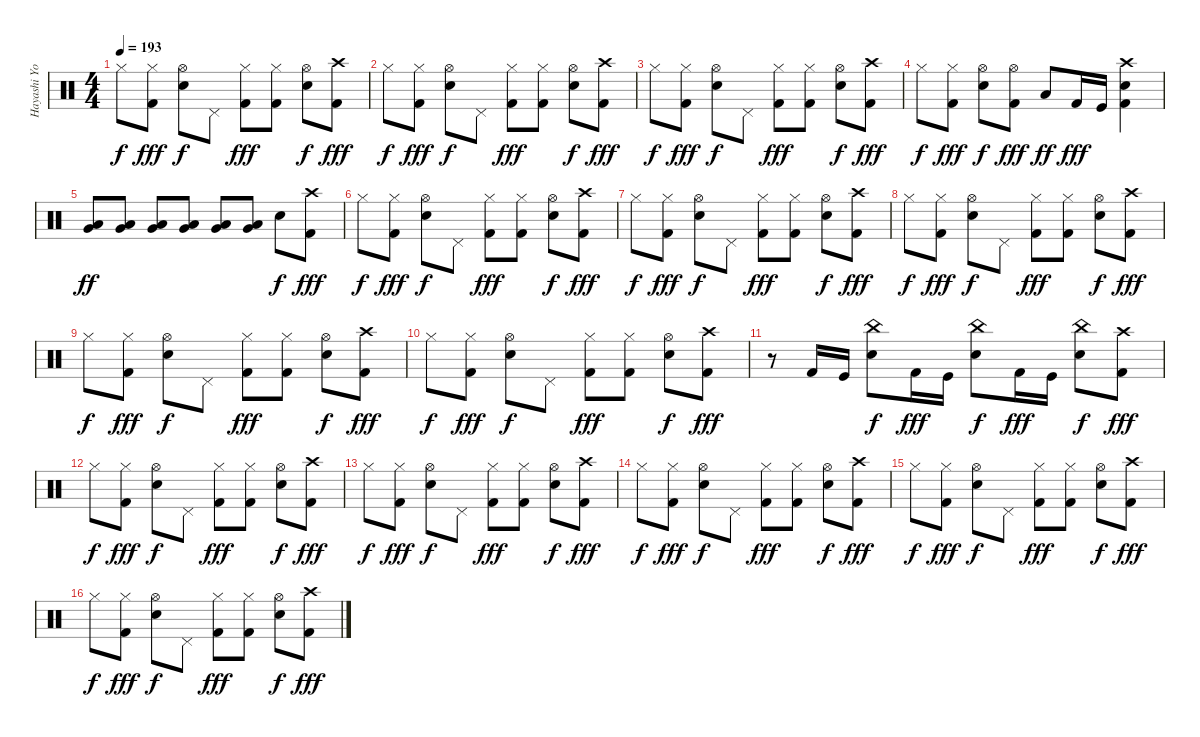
\track ("Hayashi Yoshiki(Yoshiki)" "Hayashi Yo") {instrument percussion}
\staff {score}
\articulation defaults
\ts (4 4)
\tempo 193
\clef neutral
\ks c "Hi-Hat (closed)".8{dy f}
("Hi-Hat (closed)" "Kick (hit) 2").8{dy fff} ("Hi-Hat (open)" "Electric Snare (hit)").8{dy f} "Pedal Hi-Hat (hit)".8 ("Hi-Hat (closed)" "Kick (hit) 2").8{dy fff} ("Hi-Hat (closed)" "Kick (hit) 2").8 ("Hi-Hat (open)" "Electric Snare (hit)").8{dy f} ("Crash high (hit)" "Kick (hit) 2").8{dy fff} |
"Hi-Hat (closed)".8{dy f} ("Hi-Hat (closed)" "Kick (hit) 2").8{dy fff} ("Hi-Hat (open)" "Electric Snare (hit)").8{dy f} "Pedal Hi-Hat (hit)".8 ("Hi-Hat (closed)" "Kick (hit) 2").8{dy fff} ("Hi-Hat (closed)" "Kick (hit) 2").8 ("Hi-Hat (open)" "Electric Snare (hit)").8{dy f} ("Crash high (hit)" "Kick (hit) 2").8{dy fff} |
"Hi-Hat (closed)".8{dy f} ("Hi-Hat (closed)" "Kick (hit) 2").8{dy fff} ("Hi-Hat (open)" "Electric Snare (hit)").8{dy f} "Pedal Hi-Hat (hit)".8 ("Hi-Hat (closed)" "Kick (hit) 2").8{dy fff} ("Hi-Hat (closed)" "Kick (hit) 2").8 ("Hi-Hat (open)" "Electric Snare (hit)").8{dy f} ("Crash high (hit)" "Kick (hit) 2").8{dy fff} |
"Hi-Hat (closed)".8{dy f} ("Hi-Hat (closed)" "Kick (hit) 2").8{dy fff} ("Hi-Hat (open)" "Electric Snare (hit)").8{dy f} ("Hi-Hat (open)" "Kick (hit) 2").8{dy fff} "Low Tom (hit)".8{dy ff} "Kick (hit) 2".16{dy fff} "Kick (hit)".16 ("Crash high (hit)" "Electric Snare (hit)" "Kick (hit) 2").4 |
("Very Low Tom (hit)" "Low Tom (hit)").8{dy ff} ("Very Low Tom (hit)" "Low Tom (hit)").8 ("Very Low Tom (hit)" "Low Tom (hit)").8 ("Very Low Tom (hit)" "Low Tom (hit)").8 ("Very Low Tom (hit)" "Low Tom (hit)").8 ("Very Low Tom (hit)" "Low Tom (hit)").8 "Electric Snare (hit)".8{dy f} ("Crash high (hit)" "Kick (hit) 2").8{dy fff} |
"Hi-Hat (closed)".8{dy f} ("Hi-Hat (closed)" "Kick (hit) 2").8{dy fff} ("Hi-Hat (open)" "Electric Snare (hit)").8{dy f} "Pedal Hi-Hat (hit)".8 ("Hi-Hat (closed)" "Kick (hit) 2").8{dy fff} ("Hi-Hat (closed)" "Kick (hit) 2").8 ("Hi-Hat (open)" "Electric Snare (hit)").8{dy f} ("Crash high (hit)" "Kick (hit) 2").8{dy fff} |
"Hi-Hat (closed)".8{dy f} ("Hi-Hat (closed)" "Kick (hit) 2").8{dy fff} ("Hi-Hat (open)" "Electric Snare (hit)").8{dy f} "Pedal Hi-Hat (hit)".8 ("Hi-Hat (closed)" "Kick (hit) 2").8{dy fff} ("Hi-Hat (closed)" "Kick (hit) 2").8 ("Hi-Hat (open)" "Electric Snare (hit)").8{dy f} ("Crash high (hit)" "Kick (hit) 2").8{dy fff} |
"Hi-Hat (closed)".8{dy f} ("Hi-Hat (closed)" "Kick (hit) 2").8{dy fff} ("Hi-Hat (open)" "Electric Snare (hit)").8{dy f} "Pedal Hi-Hat (hit)".8 ("Hi-Hat (closed)" "Kick (hit) 2").8{dy fff} ("Hi-Hat (closed)" "Kick (hit) 2").8 ("Hi-Hat (open)" "Electric Snare (hit)").8{dy f} ("Crash high (hit)" "Kick (hit) 2").8{dy fff} |
"Hi-Hat (closed)".8{dy f} ("Hi-Hat (closed)" "Kick (hit) 2").8{dy fff} ("Hi-Hat (open)" "Electric Snare (hit)").8{dy f} "Pedal Hi-Hat (hit)".8 ("Hi-Hat (closed)" "Kick (hit) 2").8{dy fff} ("Hi-Hat (closed)" "Kick (hit) 2").8 ("Hi-Hat (open)" "Electric Snare (hit)").8{dy f} ("Crash high (hit)" "Kick (hit) 2").8{dy fff} |
"Hi-Hat (closed)".8{dy f} ("Hi-Hat (closed)" "Kick (hit) 2").8{dy fff} ("Hi-Hat (open)" "Electric Snare (hit)").8{dy f} "Pedal Hi-Hat (hit)".8 ("Hi-Hat (closed)" "Kick (hit) 2").8{dy fff} ("Hi-Hat (closed)" "Kick (hit) 2").8 ("Hi-Hat (open)" "Electric Snare (hit)").8{dy f} ("Crash high (hit)" "Kick (hit) 2").8{dy fff} |
r.8 "Kick (hit) 2".16 "Kick (hit)".16 ("China (hit)" "Electric Snare (hit)").8{dy f} "Kick (hit) 2".16{dy fff} "Kick (hit)".16 ("China (hit)" "Electric Snare (hit)").8{dy f} "Kick (hit) 2".16{dy fff} "Kick (hit)".16 ("China (hit)" "Electric Snare (hit)").8{dy f} ("Crash high (hit)" "Kick (hit) 2").8{dy fff} |
"Hi-Hat (closed)".8{dy f} ("Hi-Hat (closed)" "Kick (hit) 2").8{dy fff} ("Hi-Hat (open)" "Electric Snare (hit)").8{dy f} "Pedal Hi-Hat (hit)".8 ("Hi-Hat (closed)" "Kick (hit) 2").8{dy fff} ("Hi-Hat (closed)" "Kick (hit) 2").8 ("Hi-Hat (open)" "Electric Snare (hit)").8{dy f} ("Crash high (hit)" "Kick (hit) 2").8{dy fff} |
"Hi-Hat (closed)".8{dy f} ("Hi-Hat (closed)" "Kick (hit) 2").8{dy fff} ("Hi-Hat (open)" "Electric Snare (hit)").8{dy f} "Pedal Hi-Hat (hit)".8 ("Hi-Hat (closed)" "Kick (hit) 2").8{dy fff} ("Hi-Hat (closed)" "Kick (hit) 2").8 ("Hi-Hat (open)" "Electric Snare (hit)").8{dy f} ("Crash high (hit)" "Kick (hit) 2").8{dy fff} |
"Hi-Hat (closed)".8{dy f} ("Hi-Hat (closed)" "Kick (hit) 2").8{dy fff} ("Hi-Hat (open)" "Electric Snare (hit)").8{dy f} "Pedal Hi-Hat (hit)".8 ("Hi-Hat (closed)" "Kick (hit) 2").8{dy fff} ("Hi-Hat (closed)" "Kick (hit) 2").8 ("Hi-Hat (open)" "Electric Snare (hit)").8{dy f} ("Crash high (hit)" "Kick (hit) 2").8{dy fff} |
"Hi-Hat (closed)".8{dy f} ("Hi-Hat (closed)" "Kick (hit) 2").8{dy fff} ("Hi-Hat (open)" "Electric Snare (hit)").8{dy f} "Pedal Hi-Hat (hit)".8 ("Hi-Hat (closed)" "Kick (hit) 2").8{dy fff} ("Hi-Hat (closed)" "Kick (hit) 2").8 ("Hi-Hat (open)" "Electric Snare (hit)").8{dy f} ("Crash high (hit)" "Kick (hit) 2").8{dy fff} |
"Hi-Hat (closed)".8{dy f} ("Hi-Hat (closed)" "Kick (hit) 2").8{dy fff} ("Hi-Hat (open)" "Electric Snare (hit)").8{dy f} "Pedal Hi-Hat (hit)".8 ("Hi-Hat (closed)" "Kick (hit) 2").8{dy fff} ("Hi-Hat (closed)" "Kick (hit) 2").8 ("Hi-Hat (open)" "Electric Snare (hit)").8{dy f} ("Crash high (hit)" "Kick (hit) 2").8{dy fff}
